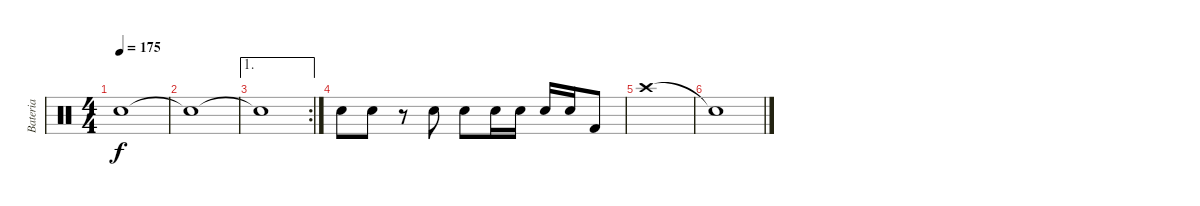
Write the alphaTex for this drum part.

\track ("Bateria" "Bateria") {instrument percussion}
\staff {score}
\articulation defaults
\ts (4 4)
\tempo 175
\clef neutral
\ks c "Snare (hit)"{t}.1{dy f}
|
"Snare (hit)"{t}.1 |
\ae 1
\rc 2 "Snare (hit)"{t}.1
|
"Snare (hit) 2".8 "Snare (hit) 2".8 r.8 "Snare (hit) 2".8 "Snare (hit) 2".8 "Snare (hit) 2".16 "Snare (hit) 2".16 "Snare (hit) 2".16 "Snare (hit) 2".16 "Kick (hit) 2".8 |
"Crash high (hit)".1 |
"Snare (hit)"{t}.1
